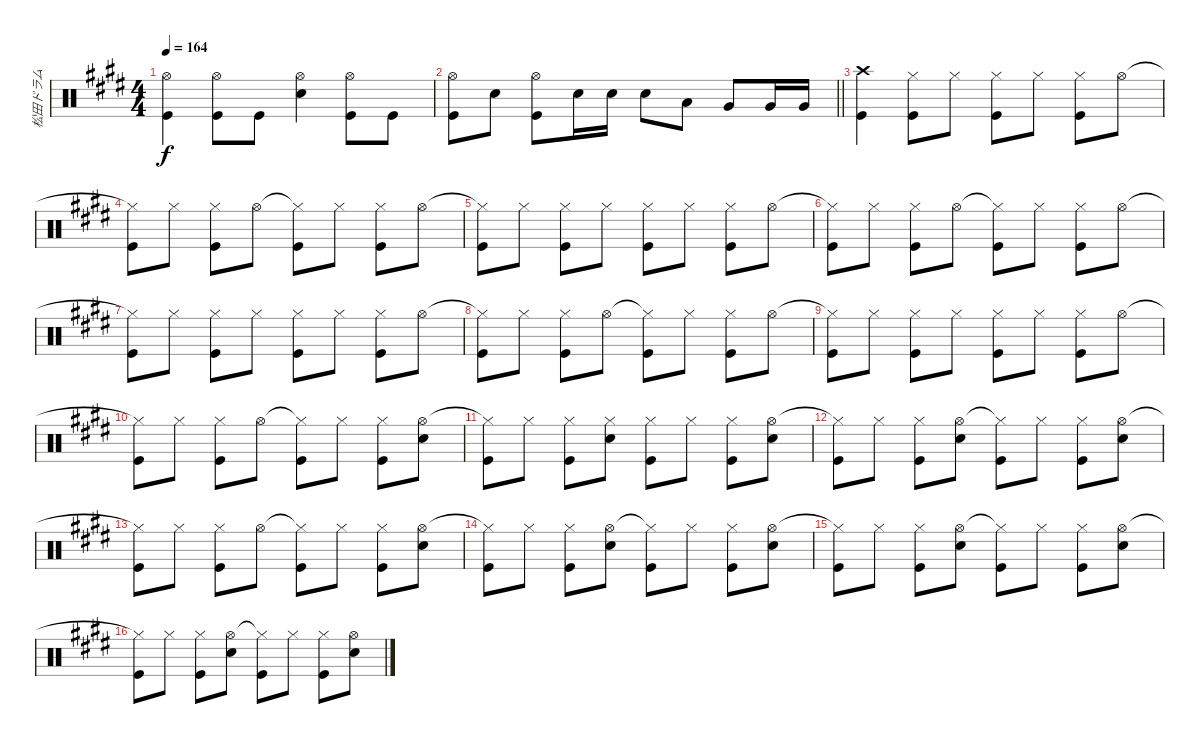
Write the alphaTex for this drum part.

\track ("松田ドラム" "松田ドラム") {instrument percussion}
\staff {score}
\articulation defaults
\ts (4 4)
\tempo 164
\clef neutral
\ks e
("Hi-Hat (open)" "Kick (hit)").4{dy f} ("Hi-Hat (open)" "Kick (hit)").8 "Kick (hit)".8 ("Hi-Hat (open)" "Snare (hit) 2").4 ("Hi-Hat (open)" "Kick (hit)").8 "Kick (hit)".8 |
\barLineRight lightlight
("Hi-Hat (open)" "Kick (hit)").8 "Snare (hit) 2".8 ("Hi-Hat (open)" "Kick (hit)").8 "Snare (hit) 2".16 "Snare (hit) 2".16 "Snare (hit) 2".8 "Low Tom (hit)".8 "Very Low Tom (hit)".8 "Very Low Tom (hit)".16 "Very Low Tom (hit)".16 |
("Crash high (hit)" "Kick (hit)").4 ("Hi-Hat (closed)" "Kick (hit)").8 "Hi-Hat (closed)".8 ("Hi-Hat (closed)" "Kick (hit)").8 "Hi-Hat (closed)".8 ("Hi-Hat (closed)" "Kick (hit)").8 "Hi-Hat (open)".8 |
("Hi-Hat (closed)"{t} "Kick (hit)").8 "Hi-Hat (closed)".8 ("Hi-Hat (closed)" "Kick (hit)").8 "Hi-Hat (open)".8 ("Hi-Hat (closed)"{t} "Kick (hit)").8 "Hi-Hat (closed)".8 ("Hi-Hat (closed)" "Kick (hit)").8 "Hi-Hat (open)".8 |
("Hi-Hat (closed)"{t} "Kick (hit)").8 "Hi-Hat (closed)".8 ("Hi-Hat (closed)" "Kick (hit)").8 "Hi-Hat (closed)".8 ("Hi-Hat (closed)" "Kick (hit)").8 "Hi-Hat (closed)".8 ("Hi-Hat (closed)" "Kick (hit)").8 "Hi-Hat (open)".8 |
("Hi-Hat (closed)"{t} "Kick (hit)").8 "Hi-Hat (closed)".8 ("Hi-Hat (closed)" "Kick (hit)").8 "Hi-Hat (open)".8 ("Hi-Hat (closed)"{t} "Kick (hit)").8 "Hi-Hat (closed)".8 ("Hi-Hat (closed)" "Kick (hit)").8 "Hi-Hat (open)".8 |
("Hi-Hat (closed)"{t} "Kick (hit)").8 "Hi-Hat (closed)".8 ("Hi-Hat (closed)" "Kick (hit)").8 "Hi-Hat (closed)".8 ("Hi-Hat (closed)" "Kick (hit)").8 "Hi-Hat (closed)".8 ("Hi-Hat (closed)" "Kick (hit)").8 "Hi-Hat (open)".8 |
("Hi-Hat (closed)"{t} "Kick (hit)").8 "Hi-Hat (closed)".8 ("Hi-Hat (closed)" "Kick (hit)").8 "Hi-Hat (open)".8 ("Hi-Hat (closed)"{t} "Kick (hit)").8 "Hi-Hat (closed)".8 ("Hi-Hat (closed)" "Kick (hit)").8 "Hi-Hat (open)".8 |
("Hi-Hat (closed)"{t} "Kick (hit)").8 "Hi-Hat (closed)".8 ("Hi-Hat (closed)" "Kick (hit)").8 "Hi-Hat (closed)".8 ("Hi-Hat (closed)" "Kick (hit)").8 "Hi-Hat (closed)".8 ("Hi-Hat (closed)" "Kick (hit)").8 "Hi-Hat (open)".8 |
("Hi-Hat (closed)"{t} "Kick (hit)").8 "Hi-Hat (closed)".8 ("Hi-Hat (closed)" "Kick (hit)").8 "Hi-Hat (open)".8 ("Hi-Hat (closed)"{t} "Kick (hit)").8 "Hi-Hat (closed)".8 ("Hi-Hat (closed)" "Kick (hit)").8 ("Hi-Hat (open)" "Snare (hit) 2").8 |
("Hi-Hat (closed)"{t} "Kick (hit)").8 "Hi-Hat (closed)".8 ("Hi-Hat (closed)" "Kick (hit)").8 ("Hi-Hat (closed)" "Snare (hit) 2").8 ("Hi-Hat (closed)" "Kick (hit)").8 "Hi-Hat (closed)".8 ("Hi-Hat (closed)" "Kick (hit)").8 ("Hi-Hat (open)" "Snare (hit) 2").8 |
("Hi-Hat (closed)"{t} "Kick (hit)").8 "Hi-Hat (closed)".8 ("Hi-Hat (closed)" "Kick (hit)").8 ("Hi-Hat (open)" "Snare (hit) 2").8 ("Hi-Hat (closed)"{t} "Kick (hit)").8 "Hi-Hat (closed)".8 ("Hi-Hat (closed)" "Kick (hit)").8 ("Hi-Hat (open)" "Snare (hit) 2").8 |
("Hi-Hat (closed)"{t} "Kick (hit)").8 "Hi-Hat (closed)".8 ("Hi-Hat (closed)" "Kick (hit)").8 "Hi-Hat (open)".8 ("Hi-Hat (closed)"{t} "Kick (hit)").8 "Hi-Hat (closed)".8 ("Hi-Hat (closed)" "Kick (hit)").8 ("Hi-Hat (open)" "Snare (hit) 2").8 |
("Hi-Hat (closed)"{t} "Kick (hit)").8 "Hi-Hat (closed)".8 ("Hi-Hat (closed)" "Kick (hit)").8 ("Hi-Hat (open)" "Snare (hit) 2").8 ("Hi-Hat (closed)"{t} "Kick (hit)").8 "Hi-Hat (closed)".8 ("Hi-Hat (closed)" "Kick (hit)").8 ("Hi-Hat (open)" "Snare (hit) 2").8 |
("Hi-Hat (closed)"{t} "Kick (hit)").8 "Hi-Hat (closed)".8 ("Hi-Hat (closed)" "Kick (hit)").8 ("Hi-Hat (open)" "Snare (hit) 2").8 ("Hi-Hat (closed)"{t} "Kick (hit)").8 "Hi-Hat (closed)".8 ("Hi-Hat (closed)" "Kick (hit)").8 ("Hi-Hat (open)" "Snare (hit) 2").8 |
("Hi-Hat (closed)"{t} "Kick (hit)").8 "Hi-Hat (closed)".8 ("Hi-Hat (closed)" "Kick (hit)").8 ("Hi-Hat (open)" "Snare (hit) 2").8 ("Hi-Hat (closed)"{t} "Kick (hit)").8 "Hi-Hat (closed)".8 ("Hi-Hat (closed)" "Kick (hit)").8 ("Hi-Hat (open)" "Snare (hit) 2").8
